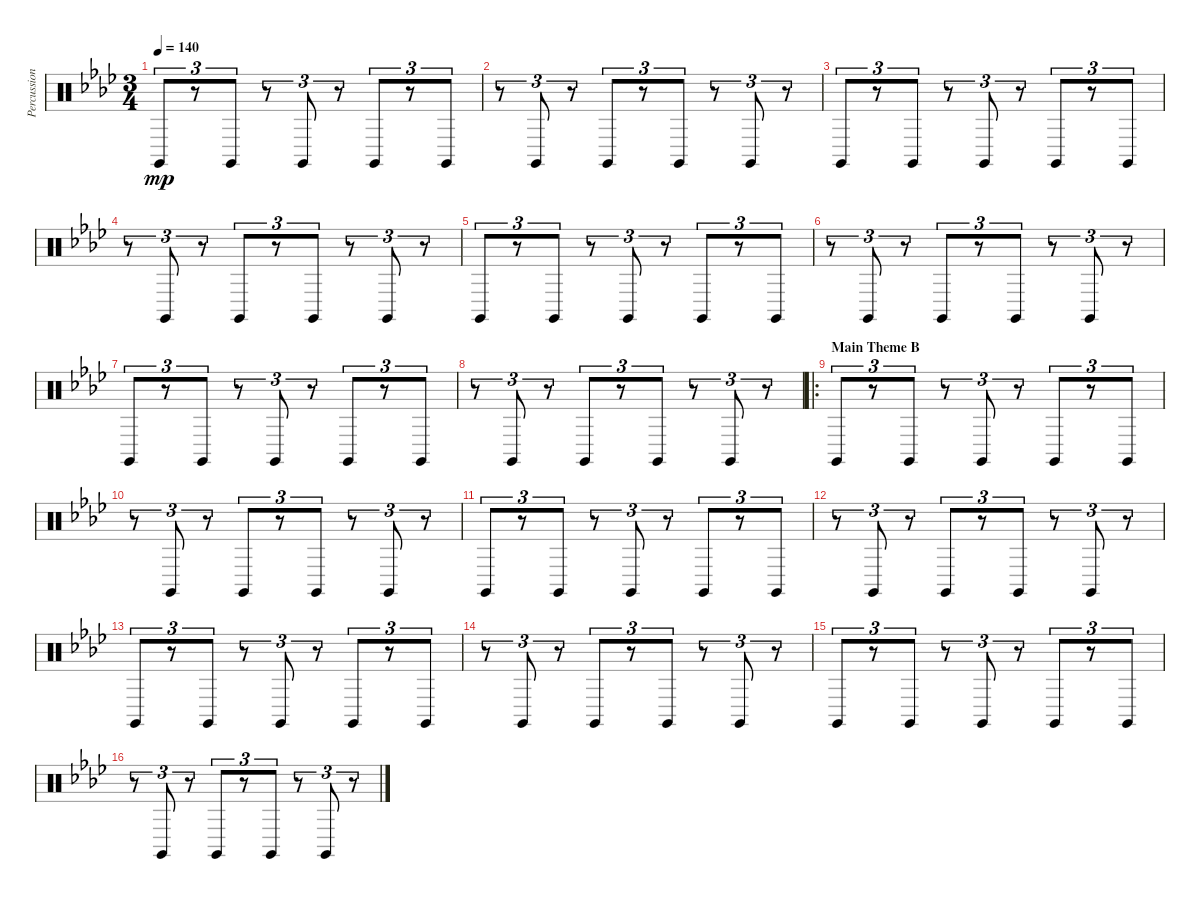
\track ("Percussion" "Percussion") {instrument percussion}
\staff {score}
\articulation defaults
\ts (3 4)
\tempo 140
\clef neutral
\ks fminor "Claves (hit)".8{tu (3 2) dy mp}
r.8{tu (3 2)} "Claves (hit)".8{tu (3 2)} r.8{tu (3 2)} "Claves (hit)".8{tu (3 2)} r.8{tu (3 2)} "Claves (hit)".8{tu (3 2)} r.8{tu (3 2)} "Claves (hit)".8{tu (3 2)} |
r.8{tu (3 2)} "Claves (hit)".8{tu (3 2)} r.8{tu (3 2)} "Claves (hit)".8{tu (3 2)} r.8{tu (3 2)} "Claves (hit)".8{tu (3 2)} r.8{tu (3 2)} "Claves (hit)".8{tu (3 2)} r.8{tu (3 2)} |
"Claves (hit)".8{tu (3 2)} r.8{tu (3 2)} "Claves (hit)".8{tu (3 2)} r.8{tu (3 2)} "Claves (hit)".8{tu (3 2)} r.8{tu (3 2)} "Claves (hit)".8{tu (3 2)} r.8{tu (3 2)} "Claves (hit)".8{tu (3 2)} |
r.8{tu (3 2)} "Claves (hit)".8{tu (3 2)} r.8{tu (3 2)} "Claves (hit)".8{tu (3 2)} r.8{tu (3 2)} "Claves (hit)".8{tu (3 2)} r.8{tu (3 2)} "Claves (hit)".8{tu (3 2)} r.8{tu (3 2)} |
"Claves (hit)".8{tu (3 2)} r.8{tu (3 2)} "Claves (hit)".8{tu (3 2)} r.8{tu (3 2)} "Claves (hit)".8{tu (3 2)} r.8{tu (3 2)} "Claves (hit)".8{tu (3 2)} r.8{tu (3 2)} "Claves (hit)".8{tu (3 2)} |
r.8{tu (3 2)} "Claves (hit)".8{tu (3 2)} r.8{tu (3 2)} "Claves (hit)".8{tu (3 2)} r.8{tu (3 2)} "Claves (hit)".8{tu (3 2)} r.8{tu (3 2)} "Claves (hit)".8{tu (3 2)} r.8{tu (3 2)} |
"Claves (hit)".8{tu (3 2)} r.8{tu (3 2)} "Claves (hit)".8{tu (3 2)} r.8{tu (3 2)} "Claves (hit)".8{tu (3 2)} r.8{tu (3 2)} "Claves (hit)".8{tu (3 2)} r.8{tu (3 2)} "Claves (hit)".8{tu (3 2)} |
r.8{tu (3 2)} "Claves (hit)".8{tu (3 2)} r.8{tu (3 2)} "Claves (hit)".8{tu (3 2)} r.8{tu (3 2)} "Claves (hit)".8{tu (3 2)} r.8{tu (3 2)} "Claves (hit)".8{tu (3 2)} r.8{tu (3 2)} |
\ro
\section ("" "Main Theme B")
"Claves (hit)".8{tu (3 2)} r.8{tu (3 2)} "Claves (hit)".8{tu (3 2)} r.8{tu (3 2)} "Claves (hit)".8{tu (3 2)} r.8{tu (3 2)} "Claves (hit)".8{tu (3 2)} r.8{tu (3 2)} "Claves (hit)".8{tu (3 2)} |
r.8{tu (3 2)} "Claves (hit)".8{tu (3 2)} r.8{tu (3 2)} "Claves (hit)".8{tu (3 2)} r.8{tu (3 2)} "Claves (hit)".8{tu (3 2)} r.8{tu (3 2)} "Claves (hit)".8{tu (3 2)} r.8{tu (3 2)} |
"Claves (hit)".8{tu (3 2)} r.8{tu (3 2)} "Claves (hit)".8{tu (3 2)} r.8{tu (3 2)} "Claves (hit)".8{tu (3 2)} r.8{tu (3 2)} "Claves (hit)".8{tu (3 2)} r.8{tu (3 2)} "Claves (hit)".8{tu (3 2)} |
r.8{tu (3 2)} "Claves (hit)".8{tu (3 2)} r.8{tu (3 2)} "Claves (hit)".8{tu (3 2)} r.8{tu (3 2)} "Claves (hit)".8{tu (3 2)} r.8{tu (3 2)} "Claves (hit)".8{tu (3 2)} r.8{tu (3 2)} |
"Claves (hit)".8{tu (3 2)} r.8{tu (3 2)} "Claves (hit)".8{tu (3 2)} r.8{tu (3 2)} "Claves (hit)".8{tu (3 2)} r.8{tu (3 2)} "Claves (hit)".8{tu (3 2)} r.8{tu (3 2)} "Claves (hit)".8{tu (3 2)} |
r.8{tu (3 2)} "Claves (hit)".8{tu (3 2)} r.8{tu (3 2)} "Claves (hit)".8{tu (3 2)} r.8{tu (3 2)} "Claves (hit)".8{tu (3 2)} r.8{tu (3 2)} "Claves (hit)".8{tu (3 2)} r.8{tu (3 2)} |
"Claves (hit)".8{tu (3 2)} r.8{tu (3 2)} "Claves (hit)".8{tu (3 2)} r.8{tu (3 2)} "Claves (hit)".8{tu (3 2)} r.8{tu (3 2)} "Claves (hit)".8{tu (3 2)} r.8{tu (3 2)} "Claves (hit)".8{tu (3 2)} |
r.8{tu (3 2)} "Claves (hit)".8{tu (3 2)} r.8{tu (3 2)} "Claves (hit)".8{tu (3 2)} r.8{tu (3 2)} "Claves (hit)".8{tu (3 2)} r.8{tu (3 2)} "Claves (hit)".8{tu (3 2)} r.8{tu (3 2)}
